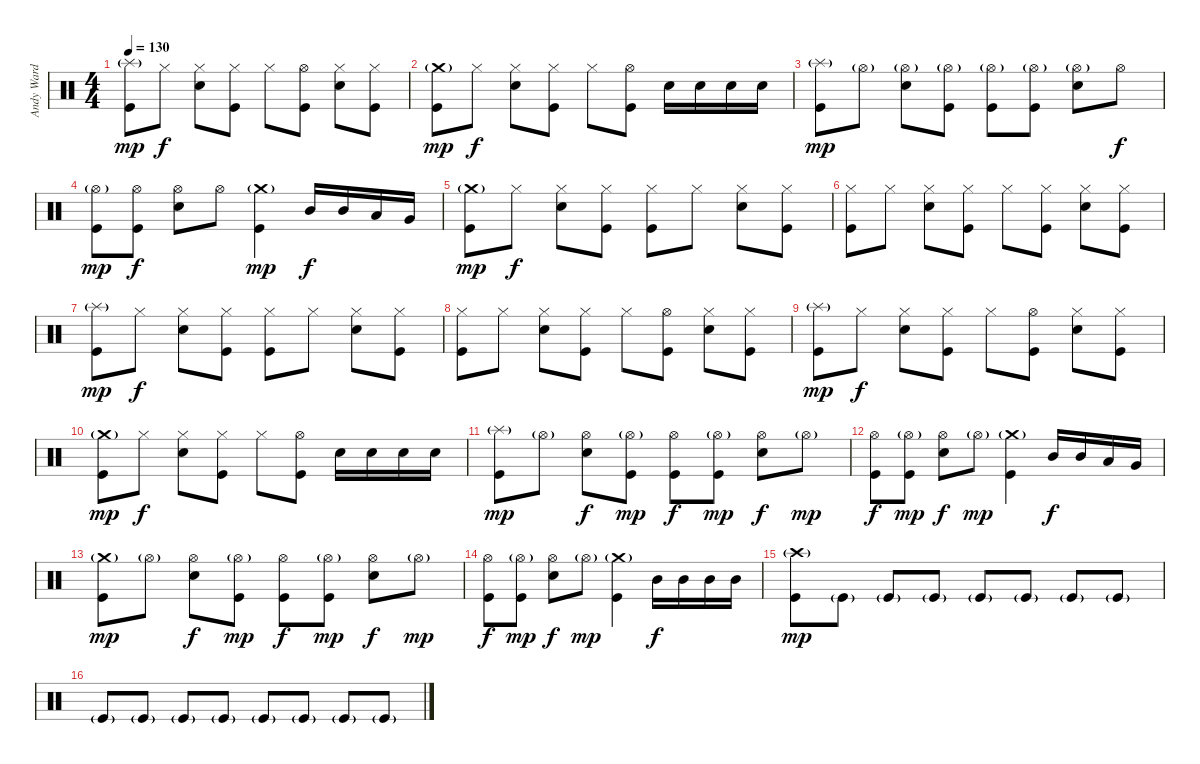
\track ("Andy Ward (Drums)" "Andy Ward ") {instrument percussion}
\staff {score}
\articulation defaults
\ts (4 4)
\tempo 130
\clef neutral
\ks c
("Splash (hit)"{g} "Kick (hit)").8{dy mp} "Hi-Hat (closed)".8{dy f} ("Hi-Hat (closed)" "Electric Snare (hit)").8 ("Hi-Hat (closed)" "Kick (hit)").8 "Hi-Hat (closed)".8 ("Hi-Hat (open)" "Kick (hit)").8 ("Hi-Hat (closed)" "Electric Snare (hit)").8 ("Hi-Hat (closed)" "Kick (hit)").8 |
("Crash medium (hit)"{g} "Kick (hit)").8{dy mp} "Hi-Hat (closed)".8{dy f} ("Hi-Hat (closed)" "Electric Snare (hit)").8 ("Hi-Hat (closed)" "Kick (hit)").8 "Hi-Hat (closed)".8 ("Hi-Hat (open)" "Kick (hit)").8 "Electric Snare (hit)".16 "Electric Snare (hit)".16 "Electric Snare (hit)".16 "Electric Snare (hit)".16 |
("Splash (hit)"{g} "Kick (hit)").8{dy mp} "Hi-Hat (open)"{g}.8 ("Hi-Hat (open)"{g} "Electric Snare (hit)").8 ("Hi-Hat (open)"{g} "Kick (hit)").8 ("Hi-Hat (open)"{g} "Kick (hit)").8 ("Hi-Hat (open)"{g} "Kick (hit)").8 ("Hi-Hat (open)"{g} "Electric Snare (hit)").8 "Hi-Hat (open)".8{dy f} |
("Hi-Hat (open)"{g} "Kick (hit)").8{dy mp} ("Hi-Hat (open)" "Kick (hit)").8{dy f} ("Hi-Hat (open)" "Electric Snare (hit)").8 "Hi-Hat (open)".8 ("Crash medium (hit)"{g} "Kick (hit)").4{dy mp} "Mid Tom (hit)".16{dy f} "Mid Tom (hit)".16 "Low Tom (hit)".16 "Very Low Tom (hit)".16 |
("Crash medium (hit)"{g} "Kick (hit)").8{dy mp} "Hi-Hat (closed)".8{dy f} ("Hi-Hat (closed)" "Electric Snare (hit)").8 ("Hi-Hat (closed)" "Kick (hit)").8 ("Hi-Hat (closed)" "Kick (hit)").8 "Hi-Hat (closed)".8 ("Hi-Hat (closed)" "Electric Snare (hit)").8 ("Hi-Hat (closed)" "Kick (hit)").8 |
("Hi-Hat (closed)" "Kick (hit)").8 "Hi-Hat (closed)".8 ("Hi-Hat (closed)" "Electric Snare (hit)").8 ("Hi-Hat (closed)" "Kick (hit)").8 "Hi-Hat (closed)".8 ("Hi-Hat (closed)" "Kick (hit)").8 ("Hi-Hat (closed)" "Electric Snare (hit)").8 ("Hi-Hat (closed)" "Kick (hit)").8 |
("Splash (hit)"{g} "Kick (hit)").8{dy mp} "Hi-Hat (closed)".8{dy f} ("Hi-Hat (closed)" "Electric Snare (hit)").8 ("Hi-Hat (closed)" "Kick (hit)").8 ("Hi-Hat (closed)" "Kick (hit)").8 "Hi-Hat (closed)".8 ("Hi-Hat (closed)" "Electric Snare (hit)").8 ("Hi-Hat (closed)" "Kick (hit)").8 |
("Hi-Hat (closed)" "Kick (hit)").8 "Hi-Hat (closed)".8 ("Hi-Hat (closed)" "Electric Snare (hit)").8 ("Hi-Hat (closed)" "Kick (hit)").8 "Hi-Hat (closed)".8 ("Hi-Hat (open)" "Kick (hit)").8 ("Hi-Hat (closed)" "Electric Snare (hit)").8 ("Hi-Hat (closed)" "Kick (hit)").8 |
("Splash (hit)"{g} "Kick (hit)").8{dy mp} "Hi-Hat (closed)".8{dy f} ("Hi-Hat (closed)" "Electric Snare (hit)").8 ("Hi-Hat (closed)" "Kick (hit)").8 "Hi-Hat (closed)".8 ("Hi-Hat (open)" "Kick (hit)").8 ("Hi-Hat (closed)" "Electric Snare (hit)").8 ("Hi-Hat (closed)" "Kick (hit)").8 |
("Crash medium (hit)"{g} "Kick (hit)").8{dy mp} "Hi-Hat (closed)".8{dy f} ("Hi-Hat (closed)" "Electric Snare (hit)").8 ("Hi-Hat (closed)" "Kick (hit)").8 "Hi-Hat (closed)".8 ("Hi-Hat (open)" "Kick (hit)").8 "Electric Snare (hit)".16 "Electric Snare (hit)".16 "Electric Snare (hit)".16 "Electric Snare (hit)".16 |
("Splash (hit)"{g} "Kick (hit)").8{dy mp} "Hi-Hat (open)"{g}.8 ("Hi-Hat (open)" "Electric Snare (hit)").8{dy f} ("Hi-Hat (open)"{g} "Kick (hit)").8{dy mp} ("Hi-Hat (open)" "Kick (hit)").8{dy f} ("Hi-Hat (open)"{g} "Kick (hit)").8{dy mp} ("Hi-Hat (open)" "Electric Snare (hit)").8{dy f} "Hi-Hat (open)"{g}.8{dy mp} |
("Hi-Hat (open)" "Kick (hit)").8{dy f} ("Hi-Hat (open)"{g} "Kick (hit)").8{dy mp} ("Hi-Hat (open)" "Electric Snare (hit)").8{dy f} "Hi-Hat (open)"{g}.8{dy mp} ("Crash medium (hit)"{g} "Kick (hit)").4 "Mid Tom (hit)".16{dy f} "Mid Tom (hit)".16 "Low Tom (hit)".16 "Very Low Tom (hit)".16 |
("Crash medium (hit)"{g} "Kick (hit)").8{dy mp} "Hi-Hat (open)"{g}.8 ("Hi-Hat (open)" "Electric Snare (hit)").8{dy f} ("Hi-Hat (open)"{g} "Kick (hit)").8{dy mp} ("Hi-Hat (open)" "Kick (hit)").8{dy f} ("Hi-Hat (open)"{g} "Kick (hit)").8{dy mp} ("Hi-Hat (open)" "Electric Snare (hit)").8{dy f} "Hi-Hat (open)"{g}.8{dy mp} |
("Hi-Hat (open)" "Kick (hit)").8{dy f} ("Hi-Hat (open)"{g} "Kick (hit)").8{dy mp} ("Hi-Hat (open)" "Electric Snare (hit)").8{dy f} "Hi-Hat (open)"{g}.8{dy mp} ("Crash medium (hit)"{g} "Kick (hit)").4 "Mid Tom (hit)".16{dy f} "Mid Tom (hit)".16 "Mid Tom (hit)".16 "Mid Tom (hit)".16 |
("Crash high (hit)"{g} "Kick (hit)").8{dy mp} "Kick (hit)"{g}.8 "Kick (hit)"{g}.8 "Kick (hit)"{g}.8 "Kick (hit)"{g}.8 "Kick (hit)"{g}.8 "Kick (hit)"{g}.8 "Kick (hit)"{g}.8 |
"Kick (hit)"{g}.8 "Kick (hit)"{g}.8 "Kick (hit)"{g}.8 "Kick (hit)"{g}.8 "Kick (hit)"{g}.8 "Kick (hit)"{g}.8 "Kick (hit)"{g}.8 "Kick (hit)"{g}.8
